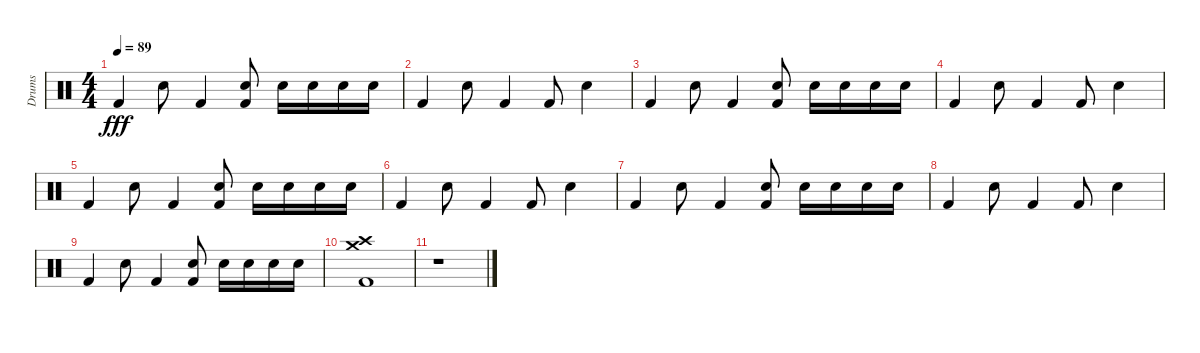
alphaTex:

\track ("Drums" "Drums") {instrument percussion}
\staff {score}
\articulation defaults
\ts (4 4)
\tempo 89
\clef neutral
\ks c "Kick (hit) 2".4{dy fff} "Electric Snare (hit)".8 "Kick (hit) 2".4
("Electric Snare (hit)" "Kick (hit) 2").8 "Electric Snare (hit)".16 "Electric Snare (hit)".16 "Electric Snare (hit)".16 "Electric Snare (hit)".16 |
"Kick (hit) 2".4 "Electric Snare (hit)".8 "Kick (hit) 2".4 "Kick (hit) 2".8 "Electric Snare (hit)".4 |
"Kick (hit) 2".4 "Electric Snare (hit)".8 "Kick (hit) 2".4 ("Electric Snare (hit)" "Kick (hit) 2").8 "Electric Snare (hit)".16 "Electric Snare (hit)".16 "Electric Snare (hit)".16 "Electric Snare (hit)".16 |
"Kick (hit) 2".4 "Electric Snare (hit)".8 "Kick (hit) 2".4 "Kick (hit) 2".8 "Electric Snare (hit)".4 |
"Kick (hit) 2".4 "Electric Snare (hit)".8 "Kick (hit) 2".4 ("Electric Snare (hit)" "Kick (hit) 2").8 "Electric Snare (hit)".16 "Electric Snare (hit)".16 "Electric Snare (hit)".16 "Electric Snare (hit)".16 |
"Kick (hit) 2".4 "Electric Snare (hit)".8 "Kick (hit) 2".4 "Kick (hit) 2".8 "Electric Snare (hit)".4 |
"Kick (hit) 2".4 "Electric Snare (hit)".8 "Kick (hit) 2".4 ("Electric Snare (hit)" "Kick (hit) 2").8 "Electric Snare (hit)".16 "Electric Snare (hit)".16 "Electric Snare (hit)".16 "Electric Snare (hit)".16 |
"Kick (hit) 2".4 "Electric Snare (hit)".8 "Kick (hit) 2".4 "Kick (hit) 2".8 "Electric Snare (hit)".4 |
"Kick (hit) 2".4 "Electric Snare (hit)".8 "Kick (hit) 2".4 ("Electric Snare (hit)" "Kick (hit) 2").8 "Electric Snare (hit)".16 "Electric Snare (hit)".16 "Electric Snare (hit)".16 "Electric Snare (hit)".16 |
("Crash medium (hit)" "Crash high (hit)" "Kick (hit) 2").1 |
r.1
